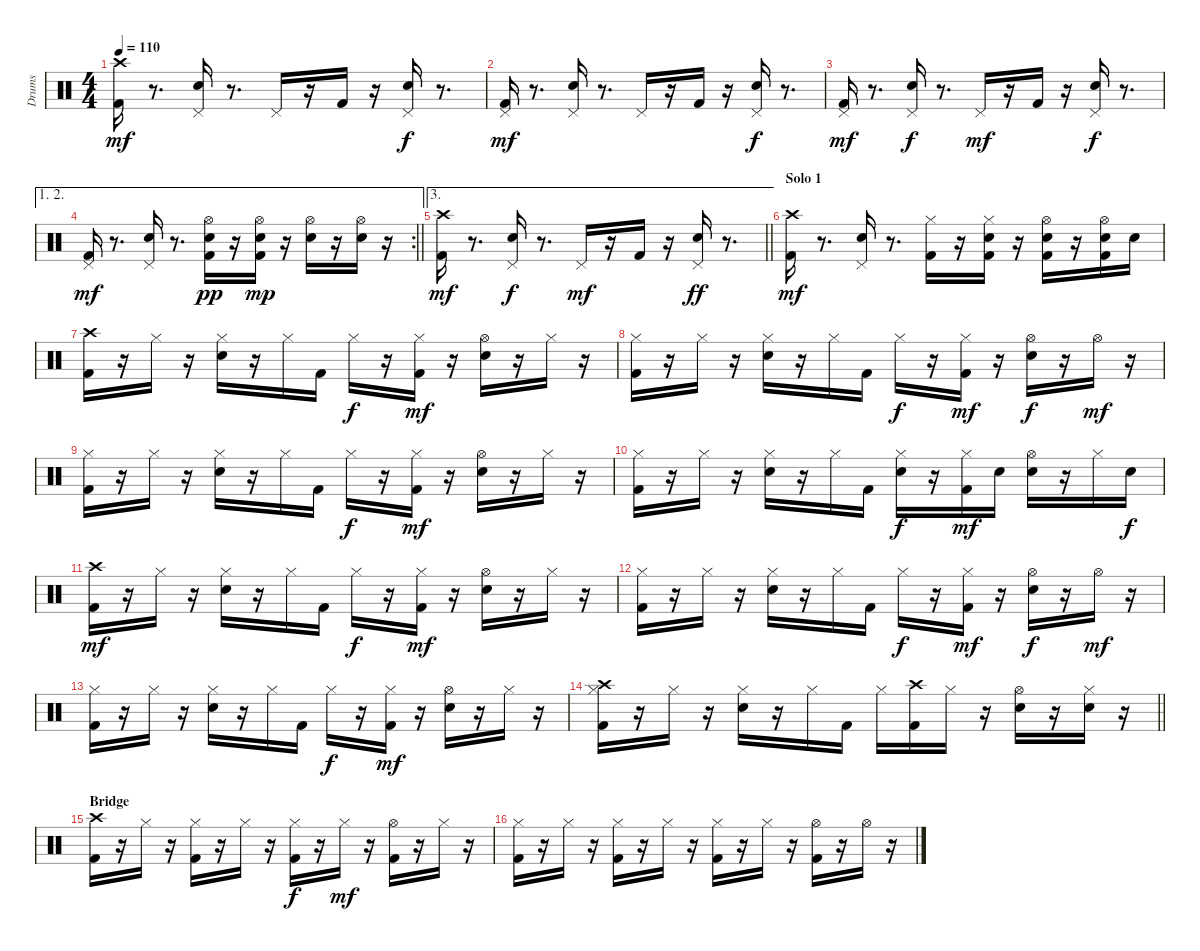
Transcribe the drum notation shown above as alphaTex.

\track ("Drums" "Drums") {instrument percussion}
\staff {score}
\articulation defaults
\ts (4 4)
\tempo 110
\clef neutral
\ks c
("Kick (hit) 2" "Crash high (hit)").16{dy mf} r.8{d} ("Snare (hit) 2" "Pedal Hi-Hat (hit)").16 r.8{d} "Pedal Hi-Hat (hit)".16 r.16 "Kick (hit) 2".16 r.16 ("Snare (hit) 2" "Pedal Hi-Hat (hit)").16{dy f} r.8{d} |
("Kick (hit) 2" "Pedal Hi-Hat (hit)").16{dy mf} r.8{d} ("Snare (hit) 2" "Pedal Hi-Hat (hit)").16 r.8{d} "Pedal Hi-Hat (hit)".16 r.16 "Kick (hit) 2".16 r.16 ("Snare (hit) 2" "Pedal Hi-Hat (hit)").16{dy f} r.8{d} |
("Kick (hit) 2" "Pedal Hi-Hat (hit)").16{dy mf} r.8{d} ("Snare (hit) 2" "Pedal Hi-Hat (hit)").16{dy f} r.8{d} "Pedal Hi-Hat (hit)".16{dy mf} r.16 "Kick (hit) 2".16 r.16 ("Snare (hit) 2" "Pedal Hi-Hat (hit)").16{dy f} r.8{d} |
\ae (1 2)
\rc 2
\barLineRight lightlight
("Kick (hit) 2" "Pedal Hi-Hat (hit)").16{dy mf} r.8{d} ("Snare (hit) 2" "Pedal Hi-Hat (hit)").16 r.8{d} ("Kick (hit) 2" "Snare (hit) 2" "Hi-Hat (open)").16{dy pp} r.16 ("Kick (hit) 2" "Snare (hit) 2" "Hi-Hat (open)").16{dy mp} r.16 ("Snare (hit) 2" "Hi-Hat (open)").16 r.16 ("Snare (hit) 2" "Hi-Hat (open)").16 r.16 |
\ae 3
\barLineRight lightlight
("Kick (hit) 2" "Crash high (hit)").16{dy mf} r.8{d} ("Snare (hit) 2" "Pedal Hi-Hat (hit)").16{dy f} r.8{d} "Pedal Hi-Hat (hit)".16{dy mf} r.16 "Kick (hit) 2".16 r.16 ("Snare (hit) 2" "Pedal Hi-Hat (hit)").16{dy ff} r.8{d} |
\section ("" "Solo 1")
("Kick (hit) 2" "Crash high (hit)").16{dy mf} r.8{d} ("Snare (hit) 2" "Pedal Hi-Hat (hit)").16 r.8{d} ("Kick (hit) 2" "Hi-Hat (closed)").16 r.16 ("Kick (hit) 2" "Snare (hit) 2" "Hi-Hat (closed)").16 r.16 ("Kick (hit) 2" "Snare (hit) 2" "Hi-Hat (open)").16 r.16 ("Kick (hit) 2" "Snare (hit) 2" "Hi-Hat (open)").16 "Snare (hit) 2".16 |
("Kick (hit) 2" "Crash high (hit)").16 r.16 "Hi-Hat (closed)".16 r.16 ("Snare (hit) 2" "Hi-Hat (closed)").16 r.16 "Hi-Hat (closed)".16 "Kick (hit) 2".16 "Hi-Hat (closed)".16{dy f} r.16 ("Kick (hit) 2" "Hi-Hat (closed)").16{dy mf} r.16 ("Snare (hit) 2" "Hi-Hat (open)").16 r.16 "Hi-Hat (closed)".16 r.16 |
("Kick (hit) 2" "Hi-Hat (closed)").16 r.16 "Hi-Hat (closed)".16 r.16 ("Snare (hit) 2" "Hi-Hat (closed)").16 r.16 "Hi-Hat (closed)".16 "Kick (hit) 2".16 "Hi-Hat (closed)".16{dy f} r.16 ("Kick (hit) 2" "Hi-Hat (closed)").16{dy mf} r.16 ("Snare (hit) 2" "Hi-Hat (open)").16{dy f} r.16 "Hi-Hat (open)".16{dy mf} r.16 |
("Kick (hit) 2" "Hi-Hat (closed)").16 r.16 "Hi-Hat (closed)".16 r.16 ("Snare (hit) 2" "Hi-Hat (closed)").16 r.16 "Hi-Hat (closed)".16 "Kick (hit) 2".16 "Hi-Hat (closed)".16{dy f} r.16 ("Kick (hit) 2" "Hi-Hat (closed)").16{dy mf} r.16 ("Snare (hit) 2" "Hi-Hat (open)").16 r.16 "Hi-Hat (closed)".16 r.16 |
("Kick (hit) 2" "Hi-Hat (closed)").16 r.16 "Hi-Hat (closed)".16 r.16 ("Snare (hit) 2" "Hi-Hat (closed)").16 r.16 "Hi-Hat (closed)".16 "Kick (hit) 2".16 ("Snare (hit) 2" "Hi-Hat (closed)").16{dy f} r.16 ("Kick (hit) 2" "Hi-Hat (closed)").16{dy mf} "Snare (hit) 2".16 ("Snare (hit) 2" "Hi-Hat (open)").16 r.16 "Hi-Hat (closed)".16 "Snare (hit) 2".16{dy f} |
("Kick (hit) 2" "Crash high (hit)").16{dy mf} r.16 "Hi-Hat (closed)".16 r.16 ("Snare (hit) 2" "Hi-Hat (closed)").16 r.16 "Hi-Hat (closed)".16 "Kick (hit) 2".16 "Hi-Hat (closed)".16{dy f} r.16 ("Kick (hit) 2" "Hi-Hat (closed)").16{dy mf} r.16 ("Snare (hit) 2" "Hi-Hat (open)").16 r.16 "Hi-Hat (closed)".16 r.16 |
("Kick (hit) 2" "Hi-Hat (closed)").16 r.16 "Hi-Hat (closed)".16 r.16 ("Snare (hit) 2" "Hi-Hat (closed)").16 r.16 "Hi-Hat (closed)".16 "Kick (hit) 2".16 "Hi-Hat (closed)".16{dy f} r.16 ("Kick (hit) 2" "Hi-Hat (closed)").16{dy mf} r.16 ("Snare (hit) 2" "Hi-Hat (open)").16{dy f} r.16 "Hi-Hat (open)".16{dy mf} r.16 |
("Kick (hit) 2" "Hi-Hat (closed)").16 r.16 "Hi-Hat (closed)".16 r.16 ("Snare (hit) 2" "Hi-Hat (closed)").16 r.16 "Hi-Hat (closed)".16 "Kick (hit) 2".16 "Hi-Hat (closed)".16{dy f} r.16 ("Kick (hit) 2" "Hi-Hat (closed)").16{dy mf} r.16 ("Snare (hit) 2" "Hi-Hat (open)").16 r.16 "Hi-Hat (closed)".16 r.16 |
\barLineRight lightlight
("Kick (hit) 2" "Hi-Hat (closed)" "Crash high (hit)").16 r.16 "Hi-Hat (closed)".16 r.16 ("Snare (hit) 2" "Hi-Hat (closed)").16 r.16 "Hi-Hat (closed)".16 "Kick (hit) 2".16 "Hi-Hat (closed)".16 ("Kick (hit) 2" "Crash high (hit)").16 "Hi-Hat (closed)".16 r.16 ("Snare (hit) 2" "Hi-Hat (open)").16 r.16 ("Snare (hit) 2" "Hi-Hat (closed)").16 r.16 |
\section ("" "Bridge")
("Kick (hit) 2" "Crash high (hit)").16 r.16 "Hi-Hat (closed)".16 r.16 ("Kick (hit) 2" "Hi-Hat (closed)").16 r.16 "Hi-Hat (closed)".16 r.16 ("Kick (hit) 2" "Hi-Hat (closed)").16{dy f} r.16 "Hi-Hat (closed)".16{dy mf} r.16 ("Kick (hit) 2" "Hi-Hat (open)").16 r.16 "Hi-Hat (closed)".16 r.16 |
("Kick (hit) 2" "Hi-Hat (closed)").16 r.16 "Hi-Hat (closed)".16 r.16 ("Kick (hit) 2" "Hi-Hat (closed)").16 r.16 "Hi-Hat (closed)".16 r.16 ("Kick (hit) 2" "Hi-Hat (closed)").16 r.16 "Hi-Hat (closed)".16 r.16 ("Kick (hit) 2" "Hi-Hat (open)").16 r.16 "Hi-Hat (open)".16 r.16
